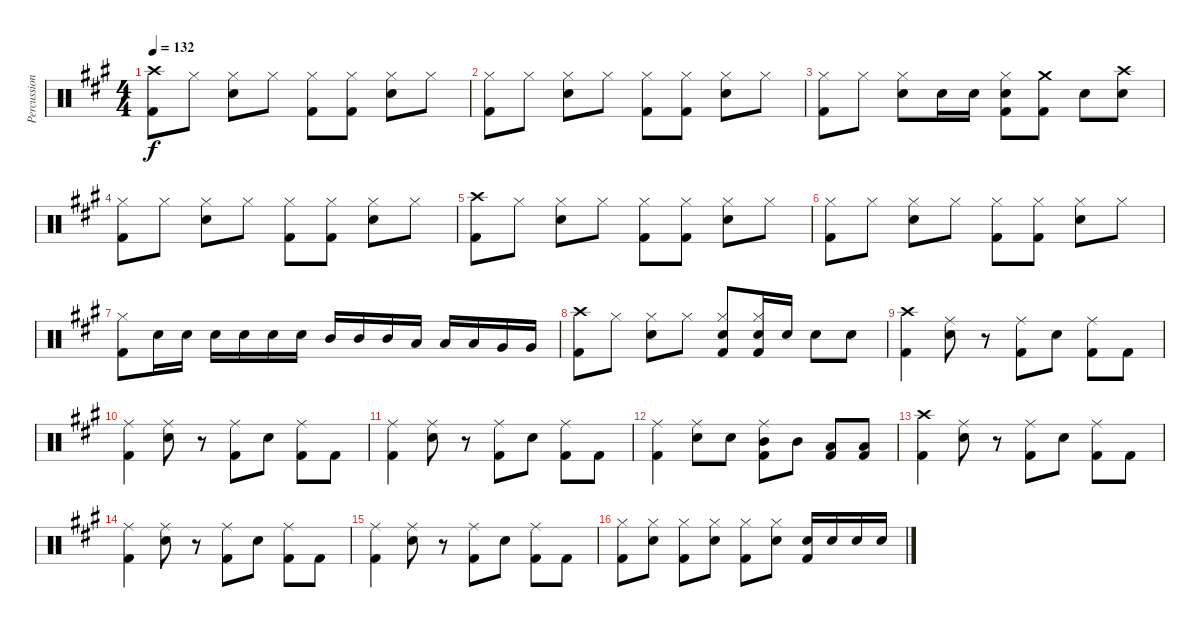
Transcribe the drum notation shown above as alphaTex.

\track ("Percussion" "Percussion") {instrument percussion}
\staff {score}
\articulation defaults
\ts (4 4)
\tempo 132
\clef neutral
\ks a
("Crash high (hit)" "Kick (hit) 2").8{dy f} "Hi-Hat (closed)".8 ("Hi-Hat (closed)" "Snare (hit) 2").8 "Hi-Hat (closed)".8 ("Hi-Hat (closed)" "Kick (hit) 2").8 ("Hi-Hat (closed)" "Kick (hit) 2").8 ("Hi-Hat (closed)" "Snare (hit) 2").8 "Hi-Hat (closed)".8 |
("Hi-Hat (closed)" "Kick (hit) 2").8 "Hi-Hat (closed)".8 ("Hi-Hat (closed)" "Snare (hit) 2").8 "Hi-Hat (closed)".8 ("Hi-Hat (closed)" "Kick (hit) 2").8 ("Hi-Hat (closed)" "Kick (hit) 2").8 ("Hi-Hat (closed)" "Snare (hit) 2").8 "Hi-Hat (closed)".8 |
("Hi-Hat (closed)" "Kick (hit) 2").8 "Hi-Hat (closed)".8 ("Hi-Hat (closed)" "Snare (hit) 2").8 "Snare (hit) 2".16 "Snare (hit) 2".16 ("Hi-Hat (closed)" "Snare (hit) 2" "Kick (hit) 2").8 ("Crash medium (hit)" "Kick (hit) 2").8 "Snare (hit) 2".8 ("Crash high (hit)" "Snare (hit) 2").8 |
("Hi-Hat (closed)" "Kick (hit) 2").8 "Hi-Hat (closed)".8 ("Hi-Hat (closed)" "Snare (hit) 2").8 "Hi-Hat (closed)".8 ("Hi-Hat (closed)" "Kick (hit) 2").8 ("Hi-Hat (closed)" "Kick (hit) 2").8 ("Hi-Hat (closed)" "Snare (hit) 2").8 "Hi-Hat (closed)".8 |
("Crash high (hit)" "Kick (hit) 2").8 "Hi-Hat (closed)".8 ("Hi-Hat (closed)" "Snare (hit) 2").8 "Hi-Hat (closed)".8 ("Hi-Hat (closed)" "Kick (hit) 2").8 ("Hi-Hat (closed)" "Kick (hit) 2").8 ("Hi-Hat (closed)" "Snare (hit) 2").8 "Hi-Hat (closed)".8 |
("Hi-Hat (closed)" "Kick (hit) 2").8 "Hi-Hat (closed)".8 ("Hi-Hat (closed)" "Snare (hit) 2").8 "Hi-Hat (closed)".8 ("Hi-Hat (closed)" "Kick (hit) 2").8 ("Hi-Hat (closed)" "Kick (hit) 2").8 ("Hi-Hat (closed)" "Snare (hit) 2").8 "Hi-Hat (closed)".8 |
("Hi-Hat (closed)" "Kick (hit) 2").8 "Snare (hit) 2".16 "Snare (hit) 2".16 "Snare (hit) 2".16 "Snare (hit) 2".16 "Snare (hit) 2".16 "Snare (hit) 2".16 "Mid Tom (hit)".16 "Mid Tom (hit)".16 "Mid Tom (hit)".16 "Low Tom (hit)".16 "Low Tom (hit)".16 "Low Tom (hit)".16 "Very Low Tom (hit)".16 "Very Low Tom (hit)".16 |
("Crash high (hit)" "Kick (hit) 2").8 "Hi-Hat (closed)".8 ("Hi-Hat (closed)" "Snare (hit) 2").8 "Hi-Hat (closed)".8 ("Hi-Hat (closed)" "Snare (hit) 2" "Kick (hit) 2").8 ("Hi-Hat (closed)" "Snare (hit) 2" "Kick (hit) 2").16 "Snare (hit) 2".16 "Snare (hit) 2".8 "Snare (hit) 2".8 |
("Crash high (hit)" "Kick (hit) 2").4 ("Ride (middle)" "Snare (hit) 2").8 r.8 ("Ride (middle)" "Kick (hit) 2").8 "Snare (hit) 2".8 ("Ride (middle)" "Kick (hit) 2").8 "Kick (hit) 2".8 |
("Ride (middle)" "Kick (hit) 2").4 ("Ride (middle)" "Snare (hit) 2").8 r.8 ("Ride (middle)" "Kick (hit) 2").8 "Snare (hit) 2".8 ("Ride (middle)" "Kick (hit) 2").8 "Kick (hit) 2".8 |
("Ride (middle)" "Kick (hit) 2").4 ("Ride (middle)" "Snare (hit) 2").8 r.8 ("Ride (middle)" "Kick (hit) 2").8 "Snare (hit) 2".8 ("Ride (middle)" "Kick (hit) 2").8 "Kick (hit) 2".8 |
("Ride (middle)" "Kick (hit) 2").4 ("Ride (middle)" "Snare (hit) 2").8 "Snare (hit) 2".8 ("Ride (middle)" "Mid Tom (hit)" "Kick (hit) 2").8 "Mid Tom (hit)".8 ("Low Tom (hit)" "Kick (hit) 2").8 ("Low Tom (hit)" "Kick (hit) 2").8 |
("Crash high (hit)" "Kick (hit) 2").4 ("Ride (middle)" "Snare (hit) 2").8 r.8 ("Ride (middle)" "Kick (hit) 2").8 "Snare (hit) 2".8 ("Ride (middle)" "Kick (hit) 2").8 "Kick (hit) 2".8 |
("Ride (middle)" "Kick (hit) 2").4 ("Ride (middle)" "Snare (hit) 2").8 r.8 ("Ride (middle)" "Kick (hit) 2").8 "Snare (hit) 2".8 ("Ride (middle)" "Kick (hit) 2").8 "Kick (hit) 2".8 |
("Ride (middle)" "Kick (hit) 2").4 ("Ride (middle)" "Snare (hit) 2").8 r.8 ("Ride (middle)" "Kick (hit) 2").8 "Snare (hit) 2".8 ("Ride (middle)" "Kick (hit) 2").8 "Kick (hit) 2".8 |
("Hi-Hat (closed)" "Kick (hit) 2").8 ("Hi-Hat (closed)" "Snare (hit) 2").8 ("Hi-Hat (closed)" "Kick (hit) 2").8 ("Hi-Hat (closed)" "Snare (hit) 2").8 ("Hi-Hat (closed)" "Kick (hit) 2").8 ("Hi-Hat (closed)" "Snare (hit) 2").8 ("Snare (hit) 2" "Kick (hit) 2").16 "Snare (hit) 2".16 "Snare (hit) 2".16 "Snare (hit) 2".16
